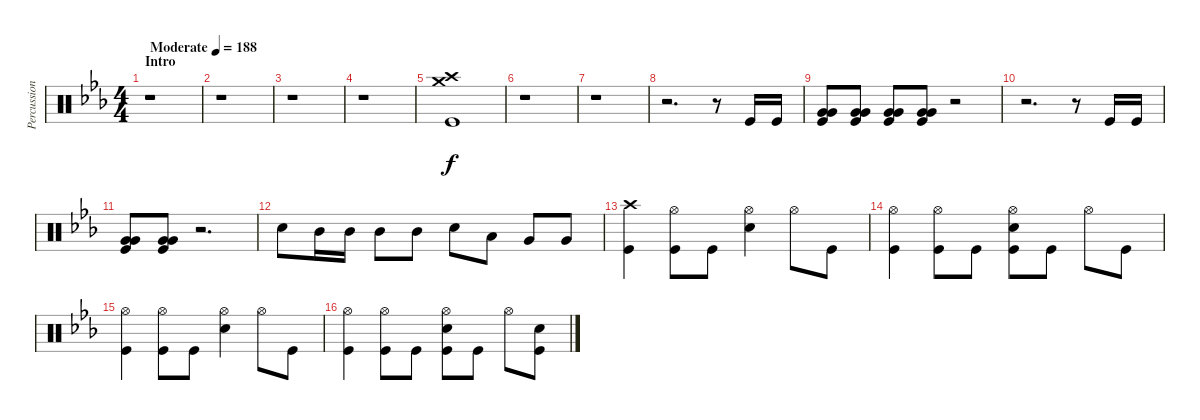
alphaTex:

\track ("Percussion" "Percussion") {instrument percussion}
\staff {score}
\articulation defaults
\ts (4 4)
\section ("" "Intro")
\tempo (188 "Moderate")
\clef neutral
\ks eb
r.1{dy f} |
r.1 |
r.1 |
r.1 |
("Crash high (hit)" "Crash medium (hit)" "Kick (hit)").1 |
r.1 |
r.1 |
r.2{d} r.8 "Kick (hit)".16 "Kick (hit)".16 |
("Very Low Tom (hit)" "Very Low Tom (hit)" "Kick (hit)").8 ("Very Low Tom (hit)" "Very Low Tom (hit)" "Kick (hit)").8 ("Very Low Tom (hit)" "Very Low Tom (hit)" "Kick (hit)").8 ("Very Low Tom (hit)" "Very Low Tom (hit)" "Kick (hit)").8 r.2 |
r.2{d} r.8 "Kick (hit)".16 "Kick (hit)".16 |
("Very Low Tom (hit)" "Very Low Tom (hit)" "Kick (hit)").8 ("Very Low Tom (hit)" "Very Low Tom (hit)" "Kick (hit)").8 r.2{d} |
"Electric Snare (hit)".8 "Mid Tom (hit)".16 "Mid Tom (hit)".16 "Mid Tom (hit)".8 "Mid Tom (hit)".8 "Electric Snare (hit)".8 "Low Tom (hit)".8 "Very Low Tom (hit)".8 "Very Low Tom (hit)".8 |
("Crash high (hit)" "Kick (hit)").4 ("Hi-Hat (open)" "Kick (hit)").8 "Kick (hit)".8 ("Hi-Hat (open)" "Electric Snare (hit)").4 "Hi-Hat (open)".8 "Kick (hit)".8 |
("Hi-Hat (open)" "Kick (hit)").4 ("Hi-Hat (open)" "Kick (hit)").8 "Kick (hit)".8 ("Hi-Hat (open)" "Electric Snare (hit)" "Kick (hit)").8 "Kick (hit)".8 "Hi-Hat (open)".8 "Kick (hit)".8 |
("Hi-Hat (open)" "Kick (hit)").4 ("Hi-Hat (open)" "Kick (hit)").8 "Kick (hit)".8 ("Hi-Hat (open)" "Electric Snare (hit)").4 "Hi-Hat (open)".8 "Kick (hit)".8 |
("Hi-Hat (open)" "Kick (hit)").4 ("Hi-Hat (open)" "Kick (hit)").8 "Kick (hit)".8 ("Hi-Hat (open)" "Electric Snare (hit)" "Kick (hit)").8 "Kick (hit)".8 "Hi-Hat (open)".8 ("Electric Snare (hit)" "Kick (hit)").8
